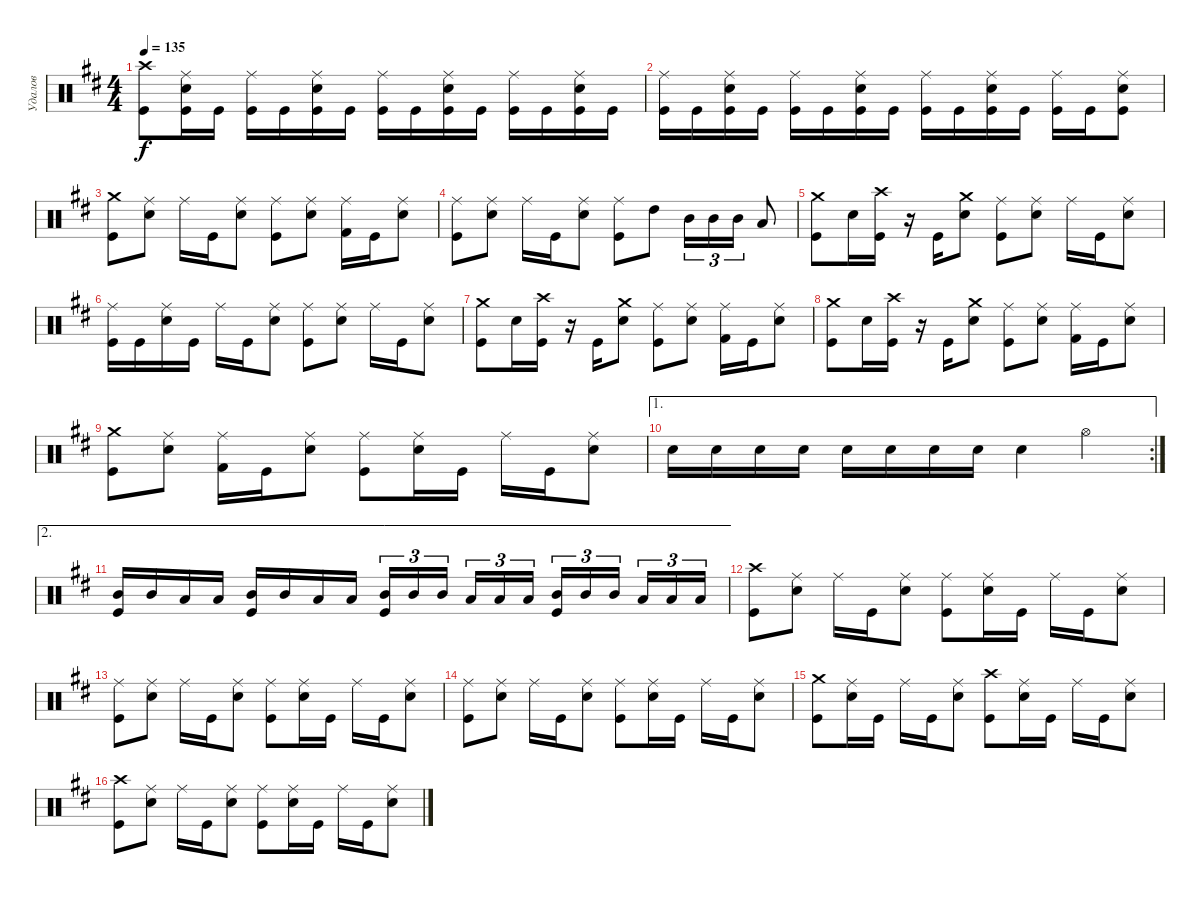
\track ("Удалов" "Удалов") {instrument percussion}
\staff {score}
\articulation defaults
\ts (4 4)
\tempo 135
\clef neutral
\ks d
("Kick (hit)" "Crash high (hit)").8{dy f} ("Kick (hit)" "Ride (middle)" "Electric Snare (hit)").16 "Kick (hit)".16 ("Kick (hit)" "Ride (middle)").16 "Kick (hit)".16 ("Kick (hit)" "Ride (middle)" "Electric Snare (hit)").16 "Kick (hit)".16 ("Kick (hit)" "Ride (middle)").16 "Kick (hit)".16 ("Kick (hit)" "Ride (middle)" "Electric Snare (hit)").16 "Kick (hit)".16 ("Kick (hit)" "Ride (middle)").16 "Kick (hit)".16 ("Kick (hit)" "Ride (middle)" "Electric Snare (hit)").16 "Kick (hit)".16 |
("Kick (hit)" "Ride (middle)").16 "Kick (hit)".16 ("Kick (hit)" "Ride (middle)" "Electric Snare (hit)").16 "Kick (hit)".16 ("Kick (hit)" "Ride (middle)").16 "Kick (hit)".16 ("Kick (hit)" "Ride (middle)" "Electric Snare (hit)").16 "Kick (hit)".16 ("Kick (hit)" "Ride (middle)").16 "Kick (hit)".16 ("Kick (hit)" "Ride (middle)" "Electric Snare (hit)").16 "Kick (hit)".16 ("Kick (hit)" "Ride (middle)").16 "Kick (hit)".16 ("Kick (hit)" "Ride (middle)" "Electric Snare (hit)").8 |
("Kick (hit)" "Crash medium (hit)").8 ("Electric Snare (hit)" "Ride (middle)").8 "Ride (middle)".16 "Kick (hit)".16 ("Electric Snare (hit)" "Ride (middle)").8 ("Kick (hit)" "Ride (middle)").8 ("Ride (middle)" "Electric Snare (hit)").8 ("Kick (hit) 2" "Ride (middle)").16 "Kick (hit)".16 ("Electric Snare (hit)" "Ride (middle)").8 |
("Kick (hit)" "Ride (middle)").8 ("Electric Snare (hit)" "Ride (middle)").8 "Ride (middle)".16 "Kick (hit)".16 ("Electric Snare (hit)" "Ride (middle)").8 ("Kick (hit)" "Ride (middle)").8 "High Tom (hit)".8 "Mid Tom (hit)".16{tu (3 2)} "Mid Tom (hit)".16{tu (3 2)} "Mid Tom (hit)".16{tu (3 2)} "Low Tom (hit)".8 |
("Kick (hit)" "Crash medium (hit)").8 "Electric Snare (hit)".16 ("Kick (hit)" "Crash high (hit)").16 r.16 "Kick (hit)".16 ("Electric Snare (hit)" "Crash medium (hit)").8 ("Kick (hit)" "Ride (middle)").8 ("Ride (middle)" "Electric Snare (hit)").8 "Ride (middle)".16 "Kick (hit)".16 ("Electric Snare (hit)" "Ride (middle)").8 |
("Kick (hit)" "Ride (middle)").16 "Kick (hit)".16 ("Electric Snare (hit)" "Ride (middle)").16 "Kick (hit)".16 "Ride (middle)".16 "Kick (hit)".16 ("Electric Snare (hit)" "Ride (middle)").8 ("Kick (hit)" "Ride (middle)").8 ("Ride (middle)" "Electric Snare (hit)").8 "Ride (middle)".16 "Kick (hit)".16 ("Electric Snare (hit)" "Ride (middle)").8 |
("Kick (hit)" "Crash medium (hit)").8 "Electric Snare (hit)".16 ("Kick (hit)" "Crash high (hit)").16 r.16 "Kick (hit)".16 ("Electric Snare (hit)" "Crash medium (hit)").8 ("Kick (hit)" "Ride (middle)").8 ("Ride (middle)" "Electric Snare (hit)").8 ("Kick (hit) 2" "Ride (middle)").16 "Kick (hit)".16 ("Electric Snare (hit)" "Ride (middle)").8 |
("Kick (hit)" "Crash medium (hit)").8 "Electric Snare (hit)".16 ("Kick (hit)" "Crash high (hit)").16 r.16 "Kick (hit)".16 ("Electric Snare (hit)" "Crash medium (hit)").8 ("Kick (hit)" "Ride (middle)").8 ("Ride (middle)" "Electric Snare (hit)").8 ("Kick (hit) 2" "Ride (middle)").16 "Kick (hit)".16 ("Electric Snare (hit)" "Ride (middle)").8 |
("Kick (hit)" "Crash medium (hit)").8 ("Ride (middle)" "Electric Snare (hit)").8 ("Kick (hit) 2" "Ride (middle)").16 "Kick (hit)".16 ("Electric Snare (hit)" "Ride (middle)").8 ("Ride (middle)" "Kick (hit)").8 ("Ride (middle)" "Electric Snare (hit)").16 "Kick (hit)".16 "Ride (middle)".16 "Kick (hit)".16 ("Electric Snare (hit)" "Ride (middle)").8 |
\ae 1
\rc 2 "Electric Snare (hit)".16 "Electric Snare (hit)".16 "Electric Snare (hit)".16 "Electric Snare (hit)".16 "Electric Snare (hit)".16 "Electric Snare (hit)".16 "Electric Snare (hit)".16 "Electric Snare (hit)".16 "Electric Snare (hit)".4 "Hi-Hat (open)".4
|
\ae 2
("Kick (hit)" "Mid Tom (hit)").16 "Mid Tom (hit)".16 "Low Tom (hit)".16 "Low Tom (hit)".16 ("Mid Tom (hit)" "Kick (hit)").16 "Mid Tom (hit)".16 "Low Tom (hit)".16 "Low Tom (hit)".16 ("Mid Tom (hit)" "Kick (hit)").16{tu (3 2)} "Mid Tom (hit)".16{tu (3 2)} "Mid Tom (hit)".16{tu (3 2) beam splitsecondary} "Low Tom (hit)".16{tu (3 2)} "Low Tom (hit)".16{tu (3 2)} "Low Tom (hit)".16{tu (3 2)} ("Mid Tom (hit)" "Kick (hit)").16{tu (3 2)} "Mid Tom (hit)".16{tu (3 2)} "Mid Tom (hit)".16{tu (3 2) beam splitsecondary} "Low Tom (hit)".16{tu (3 2)} "Low Tom (hit)".16{tu (3 2)} "Low Tom (hit)".16{tu (3 2)} |
("Kick (hit)" "Crash high (hit)").8 ("Electric Snare (hit)" "Ride (middle)").8 "Ride (middle)".16 "Kick (hit)".16 ("Electric Snare (hit)" "Ride (middle)").8 ("Ride (middle)" "Kick (hit)").8 ("Ride (middle)" "Electric Snare (hit)").16 "Kick (hit)".16 "Ride (middle)".16 "Kick (hit)".16 ("Electric Snare (hit)" "Ride (middle)").8 |
("Kick (hit)" "Ride (middle)").8 ("Electric Snare (hit)" "Ride (middle)").8 "Ride (middle)".16 "Kick (hit)".16 ("Electric Snare (hit)" "Ride (middle)").8 ("Ride (middle)" "Kick (hit)").8 ("Ride (middle)" "Electric Snare (hit)").16 "Kick (hit)".16 "Ride (middle)".16 "Kick (hit)".16 ("Electric Snare (hit)" "Ride (middle)").8 |
("Kick (hit)" "Ride (middle)").8 ("Electric Snare (hit)" "Ride (middle)").8 "Ride (middle)".16 "Kick (hit)".16 ("Electric Snare (hit)" "Ride (middle)").8 ("Ride (middle)" "Kick (hit)").8 ("Ride (middle)" "Electric Snare (hit)").16 "Kick (hit)".16 "Ride (middle)".16 "Kick (hit)".16 ("Electric Snare (hit)" "Ride (middle)").8 |
("Crash medium (hit)" "Kick (hit)").8 ("Ride (middle)" "Electric Snare (hit)").16 "Kick (hit)".16 "Ride (middle)".16 "Kick (hit)".16 ("Electric Snare (hit)" "Ride (middle)").8 ("Crash high (hit)" "Kick (hit)").8 ("Ride (middle)" "Electric Snare (hit)").16 "Kick (hit)".16 "Ride (middle)".16 "Kick (hit)".16 ("Electric Snare (hit)" "Ride (middle)").8 |
("Kick (hit)" "Crash high (hit)").8 ("Electric Snare (hit)" "Ride (middle)").8 "Ride (middle)".16 "Kick (hit)".16 ("Electric Snare (hit)" "Ride (middle)").8 ("Ride (middle)" "Kick (hit)").8 ("Ride (middle)" "Electric Snare (hit)").16 "Kick (hit)".16 "Ride (middle)".16 "Kick (hit)".16 ("Electric Snare (hit)" "Ride (middle)").8
